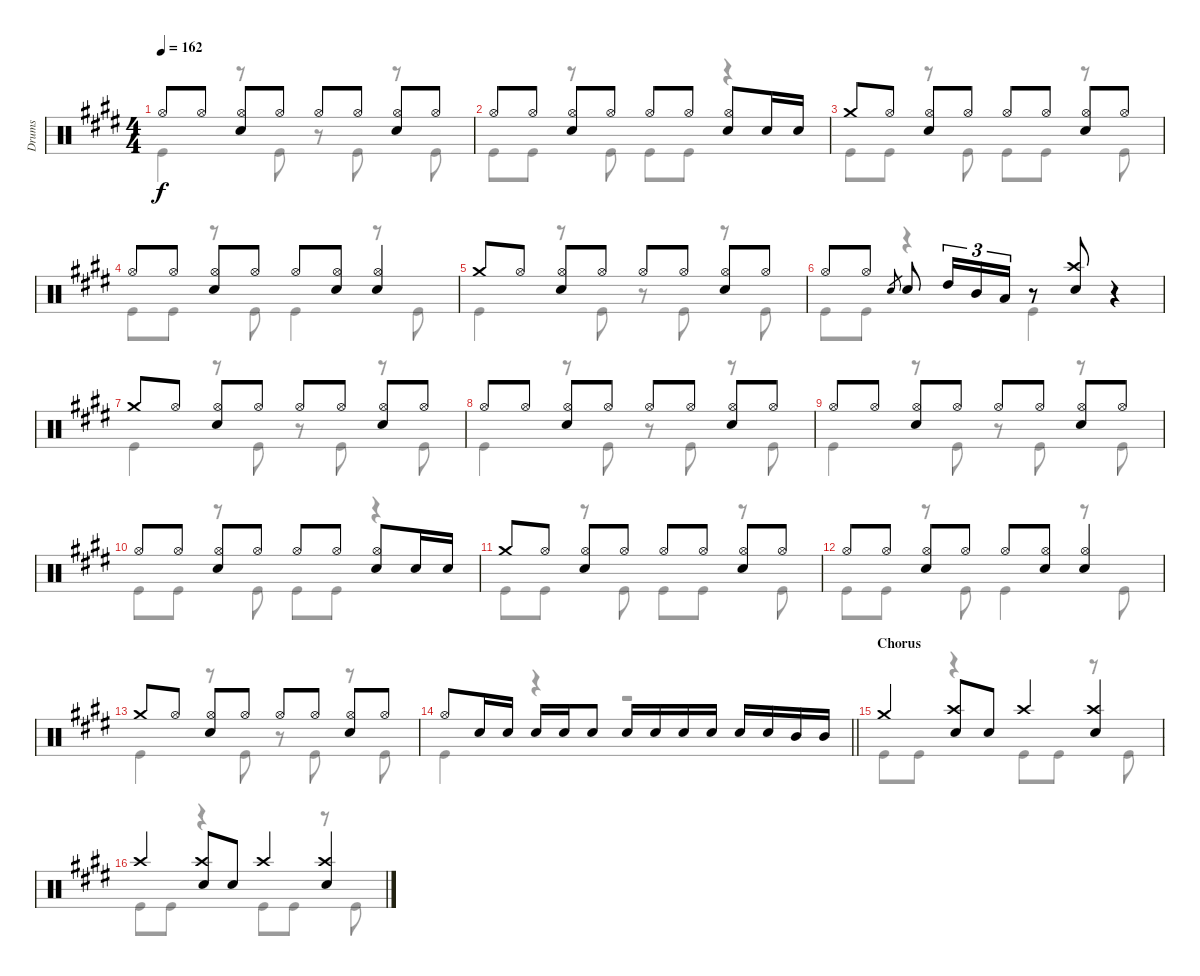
\track ("Drums" "Drums") {instrument percussion}
\staff {score}
\articulation defaults
\voice
\ts (4 4)
\tempo 162
\clef neutral
\ks e "Hi-Hat (open)".8{dy f} "Hi-Hat (open)".8
("Hi-Hat (open)" "Electric Snare (hit)").8 "Hi-Hat (open)".8 "Hi-Hat (open)".8 "Hi-Hat (open)".8 ("Hi-Hat (open)" "Electric Snare (hit)").8 "Hi-Hat (open)".8 |
"Hi-Hat (open)".8 "Hi-Hat (open)".8 ("Hi-Hat (open)" "Electric Snare (hit)").8 "Hi-Hat (open)".8 "Hi-Hat (open)".8 "Hi-Hat (open)".8 ("Hi-Hat (open)" "Electric Snare (hit)").8 "Electric Snare (hit)".16 "Electric Snare (hit)".16 |
"Crash medium (hit)".8 "Hi-Hat (open)".8 ("Hi-Hat (open)" "Electric Snare (hit)").8 "Hi-Hat (open)".8 "Hi-Hat (open)".8 "Hi-Hat (open)".8 ("Hi-Hat (open)" "Electric Snare (hit)").8 "Hi-Hat (open)".8 |
"Hi-Hat (open)".8 "Hi-Hat (open)".8 ("Hi-Hat (open)" "Electric Snare (hit)").8 "Hi-Hat (open)".8 "Hi-Hat (open)".8 ("Hi-Hat (open)" "Electric Snare (hit)").8 ("Hi-Hat (open)" "Electric Snare (hit)").4 |
"Crash medium (hit)".8 "Hi-Hat (open)".8 ("Hi-Hat (open)" "Electric Snare (hit)").8 "Hi-Hat (open)".8 "Hi-Hat (open)".8 "Hi-Hat (open)".8 ("Hi-Hat (open)" "Electric Snare (hit)").8 "Hi-Hat (open)".8 |
"Hi-Hat (open)".8 "Hi-Hat (open)".8 "Electric Snare (hit)".8{gr} "Electric Snare (hit)".8 "High Tom (hit)".16{tu (3 2)} "Mid Tom (hit)".16{tu (3 2)} "Low Tom (hit)".16{tu (3 2)} r.8 ("Crash high (hit)" "Electric Snare (hit)").8 r.4 |
"Crash medium (hit)".8 "Hi-Hat (open)".8 ("Hi-Hat (open)" "Electric Snare (hit)").8 "Hi-Hat (open)".8 "Hi-Hat (open)".8 "Hi-Hat (open)".8 ("Hi-Hat (open)" "Electric Snare (hit)").8 "Hi-Hat (open)".8 |
"Hi-Hat (open)".8 "Hi-Hat (open)".8 ("Hi-Hat (open)" "Electric Snare (hit)").8 "Hi-Hat (open)".8 "Hi-Hat (open)".8 "Hi-Hat (open)".8 ("Hi-Hat (open)" "Electric Snare (hit)").8 "Hi-Hat (open)".8 |
"Hi-Hat (open)".8 "Hi-Hat (open)".8 ("Hi-Hat (open)" "Electric Snare (hit)").8 "Hi-Hat (open)".8 "Hi-Hat (open)".8 "Hi-Hat (open)".8 ("Hi-Hat (open)" "Electric Snare (hit)").8 "Hi-Hat (open)".8 |
"Hi-Hat (open)".8 "Hi-Hat (open)".8 ("Hi-Hat (open)" "Electric Snare (hit)").8 "Hi-Hat (open)".8 "Hi-Hat (open)".8 "Hi-Hat (open)".8 ("Hi-Hat (open)" "Electric Snare (hit)").8 "Electric Snare (hit)".16 "Electric Snare (hit)".16 |
"Crash medium (hit)".8 "Hi-Hat (open)".8 ("Hi-Hat (open)" "Electric Snare (hit)").8 "Hi-Hat (open)".8 "Hi-Hat (open)".8 "Hi-Hat (open)".8 ("Hi-Hat (open)" "Electric Snare (hit)").8 "Hi-Hat (open)".8 |
"Hi-Hat (open)".8 "Hi-Hat (open)".8 ("Hi-Hat (open)" "Electric Snare (hit)").8 "Hi-Hat (open)".8 "Hi-Hat (open)".8 ("Hi-Hat (open)" "Electric Snare (hit)").8 ("Hi-Hat (open)" "Electric Snare (hit)").4 |
"Crash medium (hit)".8 "Hi-Hat (open)".8 ("Hi-Hat (open)" "Electric Snare (hit)").8 "Hi-Hat (open)".8 "Hi-Hat (open)".8 "Hi-Hat (open)".8 ("Hi-Hat (open)" "Electric Snare (hit)").8 "Hi-Hat (open)".8 |
\barLineRight lightlight "Hi-Hat (open)".8 "Electric Snare (hit)".16 "Electric Snare (hit)".16 "Electric Snare (hit)".16 "Electric Snare (hit)".16 "Electric Snare (hit)".8 "Electric Snare (hit)".16 "Electric Snare (hit)".16 "Electric Snare (hit)".16 "Electric Snare (hit)".16 "Electric Snare (hit)".16 "Electric Snare (hit)".16 "Mid Tom (hit)".16 "Mid Tom (hit)".16
|
\section ("" "Chorus")
"Crash medium (hit)".4 ("Crash high (hit)" "Electric Snare (hit)").8 "Electric Snare (hit)".8 "Crash high (hit)".4 ("Crash high (hit)" "Electric Snare (hit)").4 |
"Crash high (hit)".4 ("Crash high (hit)" "Electric Snare (hit)").8 "Electric Snare (hit)".8 "Crash high (hit)".4 ("Crash high (hit)" "Electric Snare (hit)").4
\voice
\clef neutral
\ottava regular
\simile none
\ks e "Kick (hit)".4{dy f}
r.8 "Kick (hit)".8 r.8 "Kick (hit)".8 r.8 "Kick (hit)".8 |
"Kick (hit)".8 "Kick (hit)".8 r.8 "Kick (hit)".8 "Kick (hit)".8 "Kick (hit)".8 r.4 |
"Kick (hit)".8 "Kick (hit)".8 r.8 "Kick (hit)".8 "Kick (hit)".8 "Kick (hit)".8 r.8 "Kick (hit)".8 |
"Kick (hit)".8 "Kick (hit)".8 r.8 "Kick (hit)".8 "Kick (hit)".4 r.8 "Kick (hit)".8 |
"Kick (hit)".4 r.8 "Kick (hit)".8 r.8 "Kick (hit)".8 r.8 "Kick (hit)".8 |
"Kick (hit)".8 "Kick (hit)".8 r.4 "Kick (hit)".4 r.4 |
"Kick (hit)".4 r.8 "Kick (hit)".8 r.8 "Kick (hit)".8 r.8 "Kick (hit)".8 |
"Kick (hit)".4 r.8 "Kick (hit)".8 r.8 "Kick (hit)".8 r.8 "Kick (hit)".8 |
"Kick (hit)".4 r.8 "Kick (hit)".8 r.8 "Kick (hit)".8 r.8 "Kick (hit)".8 |
"Kick (hit)".8 "Kick (hit)".8 r.8 "Kick (hit)".8 "Kick (hit)".8 "Kick (hit)".8 r.4 |
"Kick (hit)".8 "Kick (hit)".8 r.8 "Kick (hit)".8 "Kick (hit)".8 "Kick (hit)".8 r.8 "Kick (hit)".8 |
"Kick (hit)".8 "Kick (hit)".8 r.8 "Kick (hit)".8 "Kick (hit)".4 r.8 "Kick (hit)".8 |
"Kick (hit)".4 r.8 "Kick (hit)".8 r.8 "Kick (hit)".8 r.8 "Kick (hit)".8 |
\barLineRight lightlight "Kick (hit)".4
r.4 r.2 |
"Kick (hit)".8 "Kick (hit)".8 r.4 "Kick (hit)".8 "Kick (hit)".8 r.8 "Kick (hit)".8 |
"Kick (hit)".8 "Kick (hit)".8 r.4 "Kick (hit)".8 "Kick (hit)".8 r.8 "Kick (hit)".8
